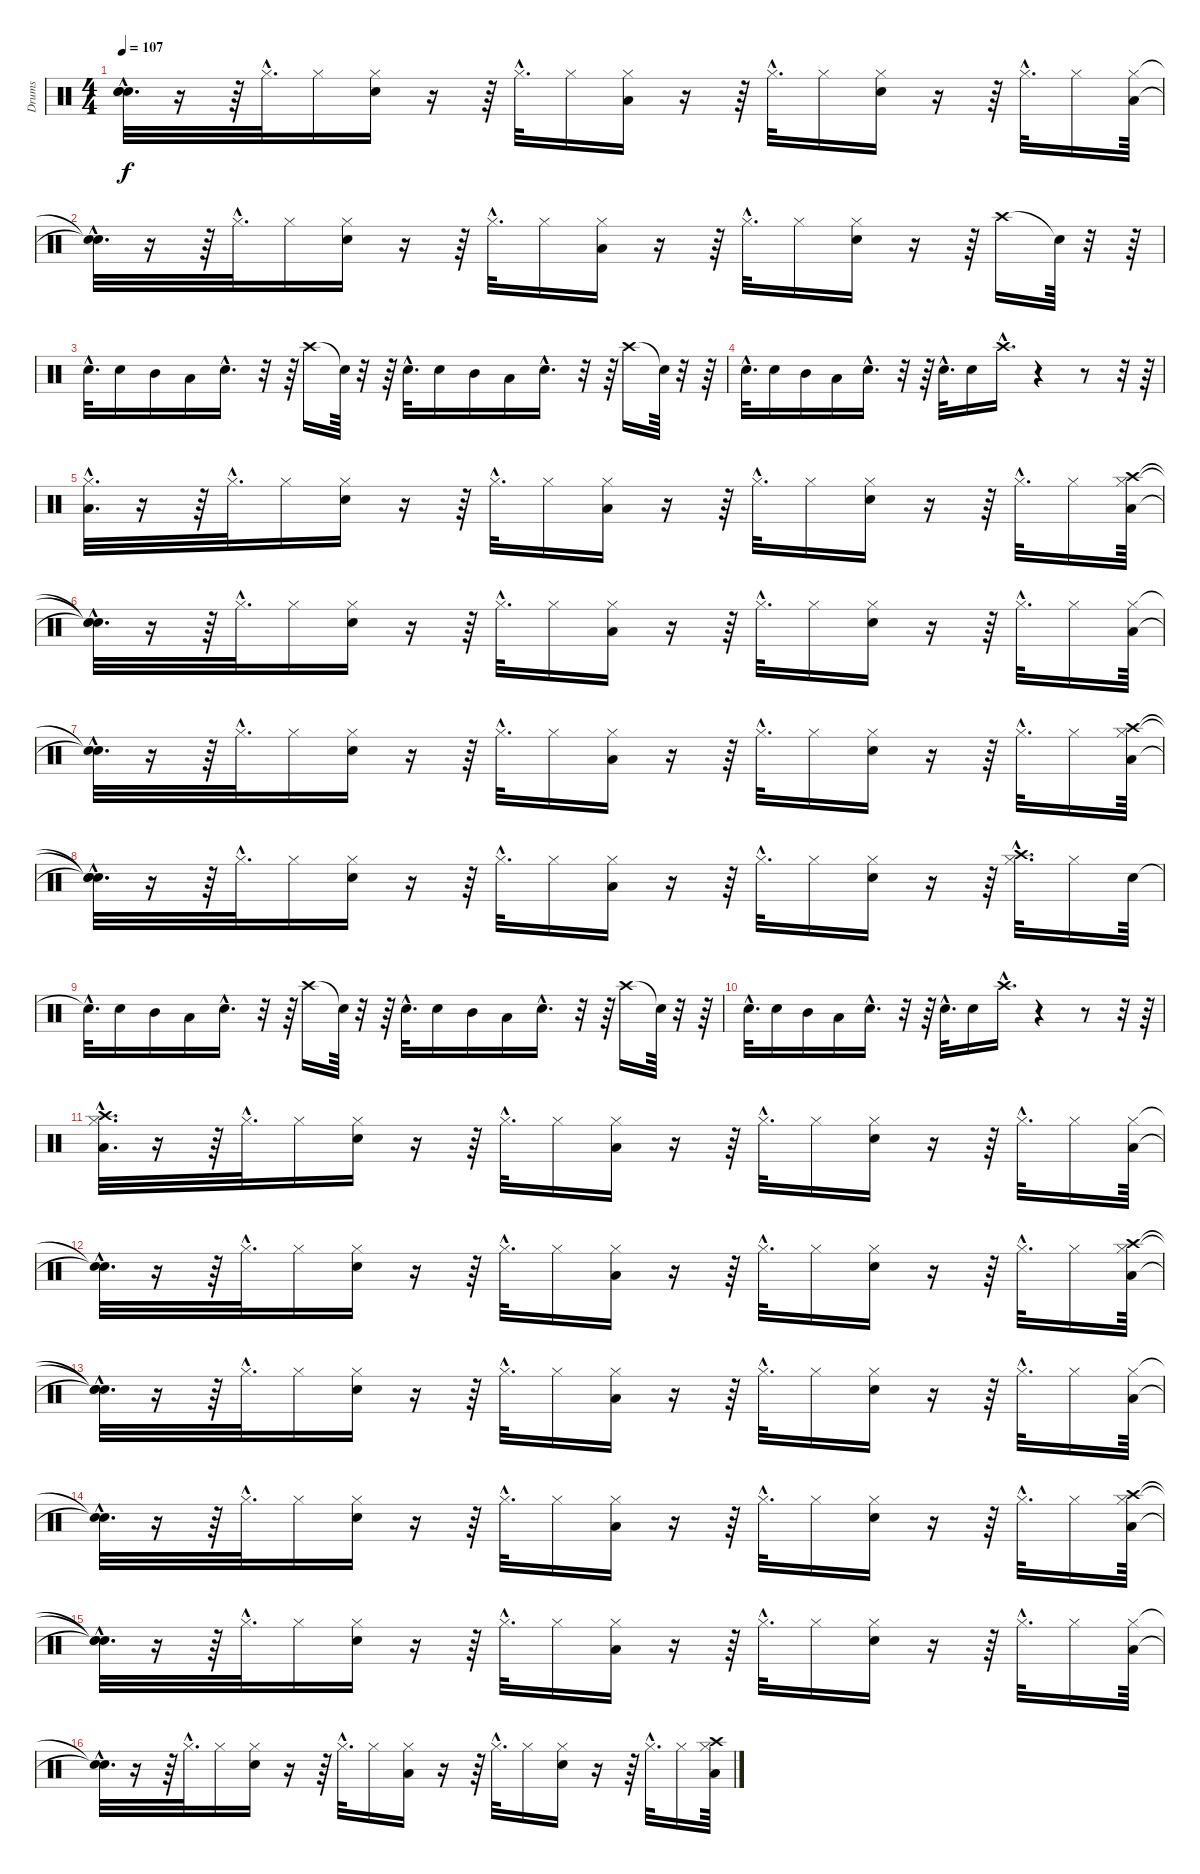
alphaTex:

\track ("Drums" "Drums") {instrument percussion}
\staff {score}
\articulation defaults
\ts (4 4)
\tempo 107
\clef neutral
\ks c
("Snare (hit)"{hac t} "Snare (hit)"{hac t} "Snare (hit)"{hac t}).32{d dy f} r.16 r.64 "Hi-Hat (closed)"{hac}.32{d} "Hi-Hat (closed)".16 ("Hi-Hat (closed)" "Snare (hit) 2").16 r.16 r.64 "Hi-Hat (closed)"{hac}.32{d} "Hi-Hat (closed)".16 ("Hi-Hat (closed)" "Low Tom (hit)").16 r.16 r.64 "Hi-Hat (closed)"{hac}.32{d} "Hi-Hat (closed)".16 ("Hi-Hat (closed)" "Snare (hit) 2").16 r.16 r.64 "Hi-Hat (closed)"{hac}.32{d} "Hi-Hat (closed)".16 ("Hi-Hat (closed)" "Low Tom (hit)").64 |
("Snare (hit)"{hac t} "Snare (hit)"{hac t}).32{d} r.16 r.64 "Hi-Hat (closed)"{hac}.32{d} "Hi-Hat (closed)".16 ("Hi-Hat (closed)" "Snare (hit) 2").16 r.16 r.64 "Hi-Hat (closed)"{hac}.32{d} "Hi-Hat (closed)".16 ("Hi-Hat (closed)" "Low Tom (hit)").16 r.16 r.64 "Hi-Hat (closed)"{hac}.32{d} "Hi-Hat (closed)".16 ("Hi-Hat (closed)" "Snare (hit) 2").16 r.16 r.64 "Crash high (hit)".16 "Snare (hit)"{t}.64 r.32 r.64 |
"Snare (hit) 2"{hac}.32{d} "Snare (hit) 2".16 "Mid Tom (hit)".16 "Low Tom (hit)".16 "Snare (hit) 2"{hac}.16{d} r.32 r.64 "Crash high (hit)".16 "Snare (hit)"{t}.64 r.32 r.64 "Snare (hit) 2"{hac}.32{d} "Snare (hit) 2".16 "Mid Tom (hit)".16 "Low Tom (hit)".16 "Snare (hit) 2"{hac}.16{d} r.32 r.64 "Crash high (hit)".16 "Snare (hit)"{t}.64 r.32 r.64 |
"Snare (hit) 2"{hac}.32{d} "Snare (hit) 2".16 "Mid Tom (hit)".16 "Low Tom (hit)".16 "Snare (hit) 2"{hac}.16{d} r.32 r.64 "Snare (hit) 2"{hac}.32{d} "Snare (hit) 2".16 "Crash high (hit)"{hac}.16{d} r.4 r.8 r.32 r.64 |
("Hi-Hat (closed)"{hac} "Low Tom (hit)"{hac}).32{d} r.16 r.64 "Hi-Hat (closed)"{hac}.32{d} "Hi-Hat (closed)".16 ("Hi-Hat (closed)" "Snare (hit) 2").16 r.16 r.64 "Hi-Hat (closed)"{hac}.32{d} "Hi-Hat (closed)".16 ("Hi-Hat (closed)" "Low Tom (hit)").16 r.16 r.64 "Hi-Hat (closed)"{hac}.32{d} "Hi-Hat (closed)".16 ("Hi-Hat (closed)" "Snare (hit) 2").16 r.16 r.64 "Hi-Hat (closed)"{hac}.32{d} "Hi-Hat (closed)".16 ("Hi-Hat (closed)" "Crash high (hit)" "Low Tom (hit)").64 |
("Snare (hit)"{hac t} "Snare (hit)"{hac t} "Snare (hit)"{hac t}).32{d} r.16 r.64 "Hi-Hat (closed)"{hac}.32{d} "Hi-Hat (closed)".16 ("Hi-Hat (closed)" "Snare (hit) 2").16 r.16 r.64 "Hi-Hat (closed)"{hac}.32{d} "Hi-Hat (closed)".16 ("Hi-Hat (closed)" "Low Tom (hit)").16 r.16 r.64 "Hi-Hat (closed)"{hac}.32{d} "Hi-Hat (closed)".16 ("Hi-Hat (closed)" "Snare (hit) 2").16 r.16 r.64 "Hi-Hat (closed)"{hac}.32{d} "Hi-Hat (closed)".16 ("Hi-Hat (closed)" "Low Tom (hit)").64 |
("Snare (hit)"{hac t} "Snare (hit)"{hac t}).32{d} r.16 r.64 "Hi-Hat (closed)"{hac}.32{d} "Hi-Hat (closed)".16 ("Hi-Hat (closed)" "Snare (hit) 2").16 r.16 r.64 "Hi-Hat (closed)"{hac}.32{d} "Hi-Hat (closed)".16 ("Hi-Hat (closed)" "Low Tom (hit)").16 r.16 r.64 "Hi-Hat (closed)"{hac}.32{d} "Hi-Hat (closed)".16 ("Hi-Hat (closed)" "Snare (hit) 2").16 r.16 r.64 "Hi-Hat (closed)"{hac}.32{d} "Hi-Hat (closed)".16 ("Hi-Hat (closed)" "Low Tom (hit)" "Crash high (hit)").64 |
("Snare (hit)"{hac t} "Snare (hit)"{hac t} "Snare (hit)"{hac t}).32{d} r.16 r.64 "Hi-Hat (closed)"{hac}.32{d} "Hi-Hat (closed)".16 ("Hi-Hat (closed)" "Snare (hit) 2").16 r.16 r.64 "Hi-Hat (closed)"{hac}.32{d} "Hi-Hat (closed)".16 ("Hi-Hat (closed)" "Low Tom (hit)").16 r.16 r.64 "Hi-Hat (closed)"{hac}.32{d} "Hi-Hat (closed)".16 ("Hi-Hat (closed)" "Snare (hit) 2").16 r.16 r.64 ("Crash high (hit)"{hac} "Hi-Hat (closed)"{hac}).32{d} "Hi-Hat (closed)".16 "Snare (hit) 2".64 |
"Snare (hit)"{hac t}.32{d} "Snare (hit) 2".16 "Mid Tom (hit)".16 "Low Tom (hit)".16 "Snare (hit) 2"{hac}.16{d} r.32 r.64 "Crash high (hit)".16 "Snare (hit)"{t}.64 r.32 r.64 "Snare (hit) 2"{hac}.32{d} "Snare (hit) 2".16 "Mid Tom (hit)".16 "Low Tom (hit)".16 "Snare (hit) 2"{hac}.16{d} r.32 r.64 "Crash high (hit)".16 "Snare (hit)"{t}.64 r.32 r.64 |
"Snare (hit) 2"{hac}.32{d} "Snare (hit) 2".16 "Mid Tom (hit)".16 "Low Tom (hit)".16 "Snare (hit) 2"{hac}.16{d} r.32 r.64 "Snare (hit) 2"{hac}.32{d} "Snare (hit) 2".16 "Crash high (hit)"{hac}.16{d} r.4 r.8 r.32 r.64 |
("Hi-Hat (closed)"{hac} "Crash high (hit)"{hac} "Low Tom (hit)"{hac}).32{d} r.16 r.64 "Hi-Hat (closed)"{hac}.32{d} "Hi-Hat (closed)".16 ("Hi-Hat (closed)" "Snare (hit) 2").16 r.16 r.64 "Hi-Hat (closed)"{hac}.32{d} "Hi-Hat (closed)".16 ("Hi-Hat (closed)" "Low Tom (hit)").16 r.16 r.64 "Hi-Hat (closed)"{hac}.32{d} "Hi-Hat (closed)".16 ("Hi-Hat (closed)" "Snare (hit) 2").16 r.16 r.64 "Hi-Hat (closed)"{hac}.32{d} "Hi-Hat (closed)".16 ("Hi-Hat (closed)" "Low Tom (hit)").64 |
("Snare (hit)"{hac t} "Snare (hit)"{hac t}).32{d} r.16 r.64 "Hi-Hat (closed)"{hac}.32{d} "Hi-Hat (closed)".16 ("Hi-Hat (closed)" "Snare (hit) 2").16 r.16 r.64 "Hi-Hat (closed)"{hac}.32{d} "Hi-Hat (closed)".16 ("Hi-Hat (closed)" "Low Tom (hit)").16 r.16 r.64 "Hi-Hat (closed)"{hac}.32{d} "Hi-Hat (closed)".16 ("Hi-Hat (closed)" "Snare (hit) 2").16 r.16 r.64 "Hi-Hat (closed)"{hac}.32{d} "Hi-Hat (closed)".16 ("Hi-Hat (closed)" "Crash high (hit)" "Low Tom (hit)").64 |
("Snare (hit)"{hac t} "Snare (hit)"{hac t} "Snare (hit)"{hac t}).32{d} r.16 r.64 "Hi-Hat (closed)"{hac}.32{d} "Hi-Hat (closed)".16 ("Hi-Hat (closed)" "Snare (hit) 2").16 r.16 r.64 "Hi-Hat (closed)"{hac}.32{d} "Hi-Hat (closed)".16 ("Hi-Hat (closed)" "Low Tom (hit)").16 r.16 r.64 "Hi-Hat (closed)"{hac}.32{d} "Hi-Hat (closed)".16 ("Hi-Hat (closed)" "Snare (hit) 2").16 r.16 r.64 "Hi-Hat (closed)"{hac}.32{d} "Hi-Hat (closed)".16 ("Hi-Hat (closed)" "Low Tom (hit)").64 |
("Snare (hit)"{hac t} "Snare (hit)"{hac t}).32{d} r.16 r.64 "Hi-Hat (closed)"{hac}.32{d} "Hi-Hat (closed)".16 ("Hi-Hat (closed)" "Snare (hit) 2").16 r.16 r.64 "Hi-Hat (closed)"{hac}.32{d} "Hi-Hat (closed)".16 ("Hi-Hat (closed)" "Low Tom (hit)").16 r.16 r.64 "Hi-Hat (closed)"{hac}.32{d} "Hi-Hat (closed)".16 ("Hi-Hat (closed)" "Snare (hit) 2").16 r.16 r.64 "Hi-Hat (closed)"{hac}.32{d} "Hi-Hat (closed)".16 ("Hi-Hat (closed)" "Crash high (hit)" "Low Tom (hit)").64 |
("Snare (hit)"{hac t} "Snare (hit)"{hac t} "Snare (hit)"{hac t}).32{d} r.16 r.64 "Hi-Hat (closed)"{hac}.32{d} "Hi-Hat (closed)".16 ("Hi-Hat (closed)" "Snare (hit) 2").16 r.16 r.64 "Hi-Hat (closed)"{hac}.32{d} "Hi-Hat (closed)".16 ("Hi-Hat (closed)" "Low Tom (hit)").16 r.16 r.64 "Hi-Hat (closed)"{hac}.32{d} "Hi-Hat (closed)".16 ("Hi-Hat (closed)" "Snare (hit) 2").16 r.16 r.64 "Hi-Hat (closed)"{hac}.32{d} "Hi-Hat (closed)".16 ("Hi-Hat (closed)" "Low Tom (hit)").64 |
("Snare (hit)"{hac t} "Snare (hit)"{hac t}).32{d} r.16 r.64 "Hi-Hat (closed)"{hac}.32{d} "Hi-Hat (closed)".16 ("Hi-Hat (closed)" "Snare (hit) 2").16 r.16 r.64 "Hi-Hat (closed)"{hac}.32{d} "Hi-Hat (closed)".16 ("Hi-Hat (closed)" "Low Tom (hit)").16 r.16 r.64 "Hi-Hat (closed)"{hac}.32{d} "Hi-Hat (closed)".16 ("Hi-Hat (closed)" "Snare (hit) 2").16 r.16 r.64 "Hi-Hat (closed)"{hac}.32{d} "Hi-Hat (closed)".16 ("Hi-Hat (closed)" "Crash high (hit)" "Low Tom (hit)").64
